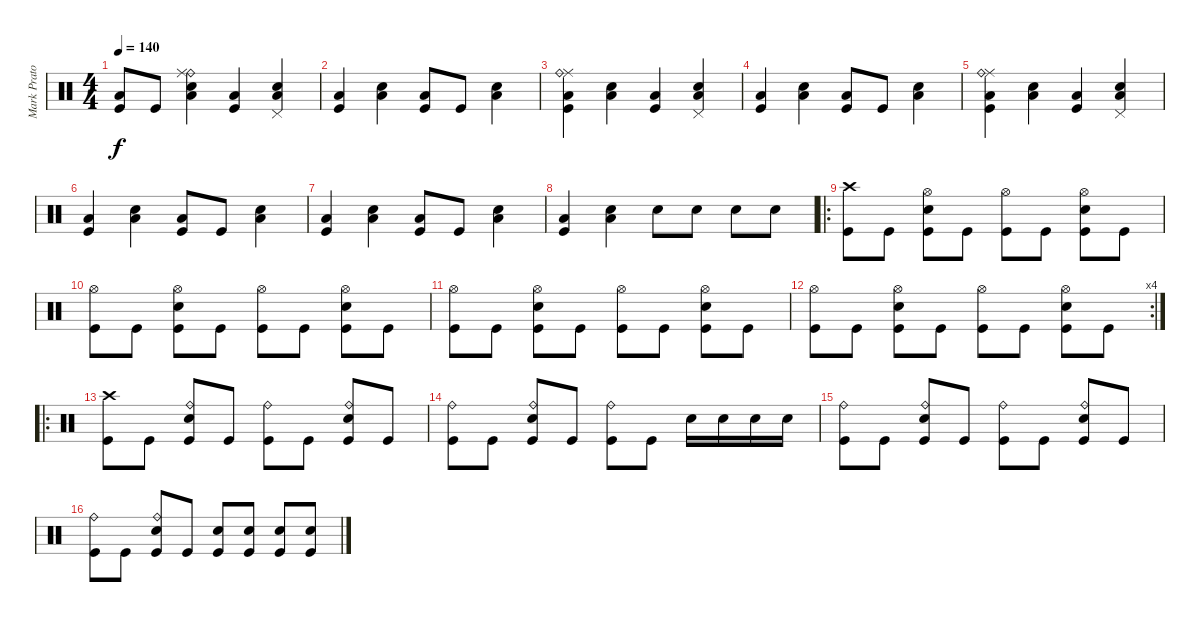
\track ("Mark Prator" "Mark Prato") {instrument percussion}
\staff {score}
\articulation defaults
\ts (4 4)
\tempo 140
\clef neutral
\ks c
("Low Floor Tom (hit)" "Kick (hit)").8{dy f} "Kick (hit)".8 ("Low Floor Tom (hit)" "Ride (bell)" "Ride (middle)" "Snare (hit) 2").4 ("Low Floor Tom (hit)" "Kick (hit)").4 ("Low Floor Tom (hit)" "Snare (hit) 2" "Pedal Hi-Hat (hit)").4 |
("Low Floor Tom (hit)" "Kick (hit)").4 ("Low Floor Tom (hit)" "Snare (hit) 2").4 ("Low Floor Tom (hit)" "Kick (hit)").8 "Kick (hit)".8 ("Low Floor Tom (hit)" "Snare (hit) 2").4 |
("Ride (middle)" "Ride (bell)" "Low Floor Tom (hit)" "Kick (hit)").4 ("Low Floor Tom (hit)" "Snare (hit) 2").4 ("Low Floor Tom (hit)" "Kick (hit)").4 ("Low Floor Tom (hit)" "Snare (hit) 2" "Pedal Hi-Hat (hit)").4 |
("Low Floor Tom (hit)" "Kick (hit)").4 ("Low Floor Tom (hit)" "Snare (hit) 2").4 ("Low Floor Tom (hit)" "Kick (hit)").8 "Kick (hit)".8 ("Low Floor Tom (hit)" "Snare (hit) 2").4 |
("Ride (middle)" "Ride (bell)" "Low Floor Tom (hit)" "Kick (hit)").4 ("Low Floor Tom (hit)" "Snare (hit) 2").4 ("Low Floor Tom (hit)" "Kick (hit)").4 ("Low Floor Tom (hit)" "Snare (hit) 2" "Pedal Hi-Hat (hit)").4 |
("Low Floor Tom (hit)" "Kick (hit)").4 ("Low Floor Tom (hit)" "Snare (hit) 2").4 ("Low Floor Tom (hit)" "Kick (hit)").8 "Kick (hit)".8 ("Low Floor Tom (hit)" "Snare (hit) 2").4 |
("Low Floor Tom (hit)" "Kick (hit)").4 ("Low Floor Tom (hit)" "Snare (hit) 2").4 ("Low Floor Tom (hit)" "Kick (hit)").8 "Kick (hit)".8 ("Low Floor Tom (hit)" "Snare (hit) 2").4 |
("Low Floor Tom (hit)" "Kick (hit)").4 ("Low Floor Tom (hit)" "Snare (hit) 2").4 "Snare (hit) 2".8 "Snare (hit) 2".8 "Snare (hit) 2".8 "Snare (hit) 2".8 |
\ro
("Crash high (hit)" "Kick (hit)").8 "Kick (hit)".8 ("Hi-Hat (open)" "Snare (hit) 2" "Kick (hit)").8 "Kick (hit)".8 ("Hi-Hat (open)" "Kick (hit)").8 "Kick (hit)".8 ("Hi-Hat (open)" "Snare (hit) 2" "Kick (hit)").8 "Kick (hit)".8 |
("Hi-Hat (open)" "Kick (hit)").8 "Kick (hit)".8 ("Hi-Hat (open)" "Snare (hit) 2" "Kick (hit)").8 "Kick (hit)".8 ("Hi-Hat (open)" "Kick (hit)").8 "Kick (hit)".8 ("Hi-Hat (open)" "Snare (hit) 2" "Kick (hit)").8 "Kick (hit)".8 |
("Hi-Hat (open)" "Kick (hit)").8 "Kick (hit)".8 ("Hi-Hat (open)" "Snare (hit) 2" "Kick (hit)").8 "Kick (hit)".8 ("Hi-Hat (open)" "Kick (hit)").8 "Kick (hit)".8 ("Hi-Hat (open)" "Snare (hit) 2" "Kick (hit)").8 "Kick (hit)".8 |
\rc 4
("Hi-Hat (open)" "Kick (hit)").8 "Kick (hit)".8 ("Hi-Hat (open)" "Snare (hit) 2" "Kick (hit)").8 "Kick (hit)".8 ("Hi-Hat (open)" "Kick (hit)").8 "Kick (hit)".8 ("Hi-Hat (open)" "Snare (hit) 2" "Kick (hit)").8 "Kick (hit)".8 |
\ro
("Crash high (hit)" "Kick (hit)").8 "Kick (hit)".8 ("Ride (bell)" "Snare (hit) 2" "Kick (hit)").8 "Kick (hit)".8 ("Ride (bell)" "Kick (hit)").8 "Kick (hit)".8 ("Ride (bell)" "Snare (hit) 2" "Kick (hit)").8 "Kick (hit)".8 |
("Ride (bell)" "Kick (hit)").8 "Kick (hit)".8 ("Ride (bell)" "Snare (hit) 2" "Kick (hit)").8 "Kick (hit)".8 ("Ride (bell)" "Kick (hit)").8 "Kick (hit)".8 "Snare (hit) 2".16 "Snare (hit) 2".16 "Snare (hit) 2".16 "Snare (hit) 2".16 |
("Ride (bell)" "Kick (hit)").8 "Kick (hit)".8 ("Ride (bell)" "Snare (hit) 2" "Kick (hit)").8 "Kick (hit)".8 ("Ride (bell)" "Kick (hit)").8 "Kick (hit)".8 ("Ride (bell)" "Snare (hit) 2" "Kick (hit)").8 "Kick (hit)".8 |
("Ride (bell)" "Kick (hit)").8 "Kick (hit)".8 ("Ride (bell)" "Snare (hit) 2" "Kick (hit)").8 "Kick (hit)".8 ("Snare (hit) 2" "Kick (hit)").8 ("Snare (hit) 2" "Kick (hit)").8 ("Snare (hit) 2" "Kick (hit)").8 ("Snare (hit) 2" "Kick (hit)").8
